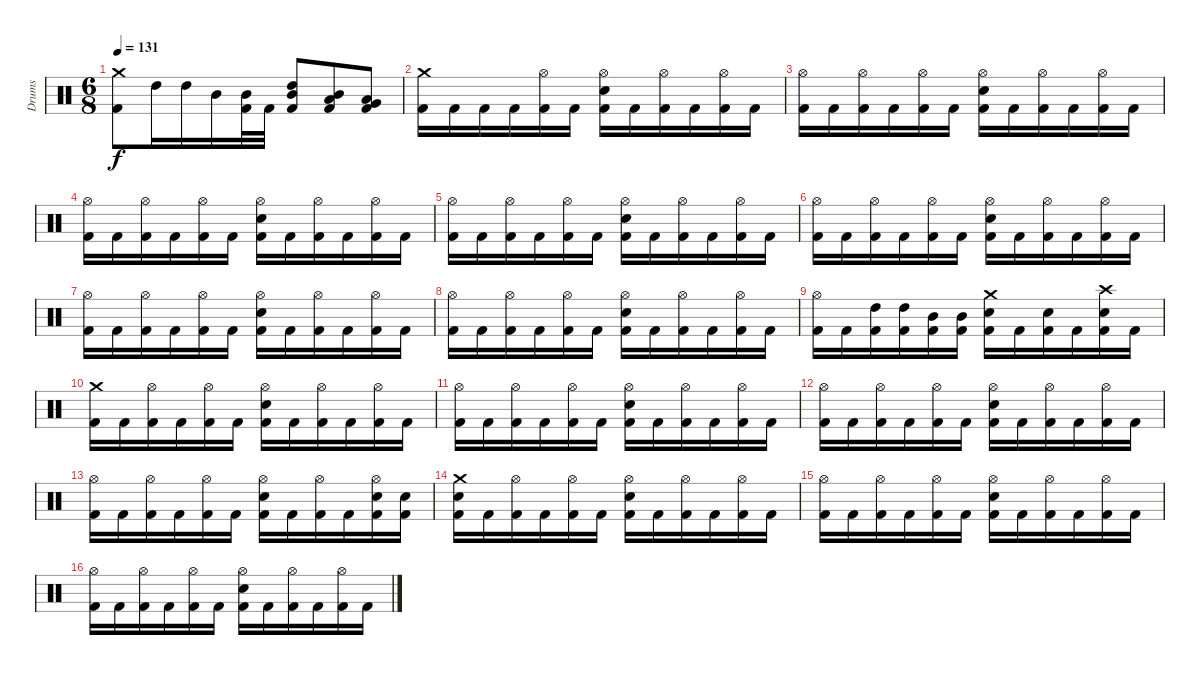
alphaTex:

\track ("Drums" "Drums") {instrument percussion}
\staff {score}
\articulation defaults
\ts (6 8)
\tempo 131
\clef neutral
\ks c
("Kick (hit) 2" "Crash medium (hit)").8{dy f} "High Tom (hit)".16 "High Tom (hit)".16 "Mid Tom (hit)".16 ("Kick (hit) 2" "Mid Tom (hit)").32 "Kick (hit) 2".32 ("Kick (hit) 2" "High Tom (hit)" "Mid Tom (hit)").8 ("Kick (hit) 2" "Mid Tom (hit)" "Low Tom (hit)").8 ("Kick (hit) 2" "Low Tom (hit)" "Very Low Tom (hit)").8 |
("Kick (hit) 2" "Crash medium (hit)").16 "Kick (hit) 2".16 "Kick (hit) 2".16 "Kick (hit) 2".16 ("Kick (hit) 2" "Hi-Hat (open)").16 "Kick (hit) 2".16 ("Kick (hit) 2" "Electric Snare (hit)" "Hi-Hat (open)").16 "Kick (hit) 2".16 ("Kick (hit) 2" "Hi-Hat (open)").16 "Kick (hit) 2".16 ("Kick (hit) 2" "Hi-Hat (open)").16 "Kick (hit) 2".16 |
("Kick (hit) 2" "Hi-Hat (open)").16 "Kick (hit) 2".16 ("Kick (hit) 2" "Hi-Hat (open)").16 "Kick (hit) 2".16 ("Kick (hit) 2" "Hi-Hat (open)").16 "Kick (hit) 2".16 ("Kick (hit) 2" "Electric Snare (hit)" "Hi-Hat (open)").16 "Kick (hit) 2".16 ("Kick (hit) 2" "Hi-Hat (open)").16 "Kick (hit) 2".16 ("Kick (hit) 2" "Hi-Hat (open)").16 "Kick (hit) 2".16 |
("Kick (hit) 2" "Hi-Hat (open)").16 "Kick (hit) 2".16 ("Kick (hit) 2" "Hi-Hat (open)").16 "Kick (hit) 2".16 ("Kick (hit) 2" "Hi-Hat (open)").16 "Kick (hit) 2".16 ("Kick (hit) 2" "Electric Snare (hit)" "Hi-Hat (open)").16 "Kick (hit) 2".16 ("Kick (hit) 2" "Hi-Hat (open)").16 "Kick (hit) 2".16 ("Kick (hit) 2" "Hi-Hat (open)").16 "Kick (hit) 2".16 |
("Kick (hit) 2" "Hi-Hat (open)").16 "Kick (hit) 2".16 ("Kick (hit) 2" "Hi-Hat (open)").16 "Kick (hit) 2".16 ("Kick (hit) 2" "Hi-Hat (open)").16 "Kick (hit) 2".16 ("Kick (hit) 2" "Electric Snare (hit)" "Hi-Hat (open)").16 "Kick (hit) 2".16 ("Kick (hit) 2" "Hi-Hat (open)").16 "Kick (hit) 2".16 ("Kick (hit) 2" "Hi-Hat (open)").16 "Kick (hit) 2".16 |
("Kick (hit) 2" "Hi-Hat (open)").16 "Kick (hit) 2".16 ("Kick (hit) 2" "Hi-Hat (open)").16 "Kick (hit) 2".16 ("Kick (hit) 2" "Hi-Hat (open)").16 "Kick (hit) 2".16 ("Kick (hit) 2" "Electric Snare (hit)" "Hi-Hat (open)").16 "Kick (hit) 2".16 ("Kick (hit) 2" "Hi-Hat (open)").16 "Kick (hit) 2".16 ("Kick (hit) 2" "Hi-Hat (open)").16 "Kick (hit) 2".16 |
("Kick (hit) 2" "Hi-Hat (open)").16 "Kick (hit) 2".16 ("Kick (hit) 2" "Hi-Hat (open)").16 "Kick (hit) 2".16 ("Kick (hit) 2" "Hi-Hat (open)").16 "Kick (hit) 2".16 ("Kick (hit) 2" "Electric Snare (hit)" "Hi-Hat (open)").16 "Kick (hit) 2".16 ("Kick (hit) 2" "Hi-Hat (open)").16 "Kick (hit) 2".16 ("Kick (hit) 2" "Hi-Hat (open)").16 "Kick (hit) 2".16 |
("Kick (hit) 2" "Hi-Hat (open)").16 "Kick (hit) 2".16 ("Kick (hit) 2" "Hi-Hat (open)").16 "Kick (hit) 2".16 ("Kick (hit) 2" "Hi-Hat (open)").16 "Kick (hit) 2".16 ("Kick (hit) 2" "Electric Snare (hit)" "Hi-Hat (open)").16 "Kick (hit) 2".16 ("Kick (hit) 2" "Hi-Hat (open)").16 "Kick (hit) 2".16 ("Kick (hit) 2" "Hi-Hat (open)").16 "Kick (hit) 2".16 |
("Kick (hit) 2" "Hi-Hat (open)").16 "Kick (hit) 2".16 ("Kick (hit) 2" "High Tom (hit)").16 ("Kick (hit) 2" "High Tom (hit)").16 ("Kick (hit) 2" "Mid Tom (hit)").16 ("Kick (hit) 2" "Mid Tom (hit)").16 ("Kick (hit) 2" "Electric Snare (hit)" "Crash medium (hit)").16 "Kick (hit) 2".16 ("Kick (hit) 2" "Electric Snare (hit)").16 "Kick (hit) 2".16 ("Kick (hit) 2" "Electric Snare (hit)" "Crash high (hit)").16 "Kick (hit) 2".16 |
("Kick (hit) 2" "Crash medium (hit)").16 "Kick (hit) 2".16 ("Kick (hit) 2" "Hi-Hat (open)").16 "Kick (hit) 2".16 ("Kick (hit) 2" "Hi-Hat (open)").16 "Kick (hit) 2".16 ("Kick (hit) 2" "Electric Snare (hit)" "Hi-Hat (open)").16 "Kick (hit) 2".16 ("Kick (hit) 2" "Hi-Hat (open)").16 "Kick (hit) 2".16 ("Kick (hit) 2" "Hi-Hat (open)").16 "Kick (hit) 2".16 |
("Kick (hit) 2" "Hi-Hat (open)").16 "Kick (hit) 2".16 ("Kick (hit) 2" "Hi-Hat (open)").16 "Kick (hit) 2".16 ("Kick (hit) 2" "Hi-Hat (open)").16 "Kick (hit) 2".16 ("Kick (hit) 2" "Electric Snare (hit)" "Hi-Hat (open)").16 "Kick (hit) 2".16 ("Kick (hit) 2" "Hi-Hat (open)").16 "Kick (hit) 2".16 ("Kick (hit) 2" "Hi-Hat (open)").16 "Kick (hit) 2".16 |
("Kick (hit) 2" "Hi-Hat (open)").16 "Kick (hit) 2".16 ("Kick (hit) 2" "Hi-Hat (open)").16 "Kick (hit) 2".16 ("Kick (hit) 2" "Hi-Hat (open)").16 "Kick (hit) 2".16 ("Kick (hit) 2" "Electric Snare (hit)" "Hi-Hat (open)").16 "Kick (hit) 2".16 ("Kick (hit) 2" "Hi-Hat (open)").16 "Kick (hit) 2".16 ("Kick (hit) 2" "Hi-Hat (open)").16 "Kick (hit) 2".16 |
("Kick (hit) 2" "Hi-Hat (open)").16 "Kick (hit) 2".16 ("Kick (hit) 2" "Hi-Hat (open)").16 "Kick (hit) 2".16 ("Kick (hit) 2" "Hi-Hat (open)").16 "Kick (hit) 2".16 ("Kick (hit) 2" "Electric Snare (hit)" "Hi-Hat (open)").16 "Kick (hit) 2".16 ("Kick (hit) 2" "Hi-Hat (open)").16 "Kick (hit) 2".16 ("Kick (hit) 2" "Electric Snare (hit)" "Hi-Hat (open)").16 ("Kick (hit) 2" "Electric Snare (hit)").16 |
("Kick (hit) 2" "Electric Snare (hit)" "Crash medium (hit)").16 "Kick (hit) 2".16 ("Kick (hit) 2" "Hi-Hat (open)").16 "Kick (hit) 2".16 ("Kick (hit) 2" "Hi-Hat (open)").16 "Kick (hit) 2".16 ("Kick (hit) 2" "Electric Snare (hit)" "Hi-Hat (open)").16 "Kick (hit) 2".16 ("Kick (hit) 2" "Hi-Hat (open)").16 "Kick (hit) 2".16 ("Kick (hit) 2" "Hi-Hat (open)").16 "Kick (hit) 2".16 |
("Kick (hit) 2" "Hi-Hat (open)").16 "Kick (hit) 2".16 ("Kick (hit) 2" "Hi-Hat (open)").16 "Kick (hit) 2".16 ("Kick (hit) 2" "Hi-Hat (open)").16 "Kick (hit) 2".16 ("Kick (hit) 2" "Electric Snare (hit)" "Hi-Hat (open)").16 "Kick (hit) 2".16 ("Kick (hit) 2" "Hi-Hat (open)").16 "Kick (hit) 2".16 ("Kick (hit) 2" "Hi-Hat (open)").16 "Kick (hit) 2".16 |
("Kick (hit) 2" "Hi-Hat (open)").16 "Kick (hit) 2".16 ("Kick (hit) 2" "Hi-Hat (open)").16 "Kick (hit) 2".16 ("Kick (hit) 2" "Hi-Hat (open)").16 "Kick (hit) 2".16 ("Kick (hit) 2" "Electric Snare (hit)" "Hi-Hat (open)").16 "Kick (hit) 2".16 ("Kick (hit) 2" "Hi-Hat (open)").16 "Kick (hit) 2".16 ("Kick (hit) 2" "Hi-Hat (open)").16 "Kick (hit) 2".16
